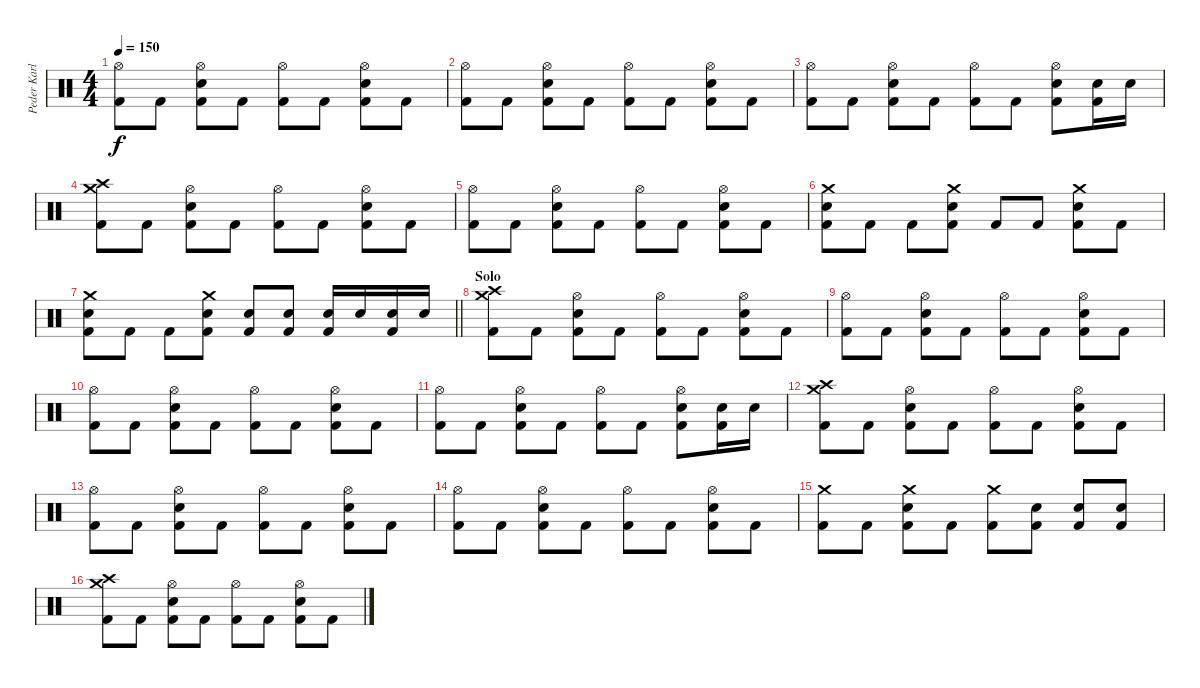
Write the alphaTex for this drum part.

\track ("Peder Karlsson" "Peder Karl") {instrument percussion}
\staff {score}
\articulation defaults
\ts (4 4)
\tempo 150
\clef neutral
\ks c
("Hi-Hat (open)" "Kick (hit) 2").8{dy f} "Kick (hit) 2".8 ("Hi-Hat (open)" "Snare (hit) 2" "Kick (hit) 2").8 "Kick (hit) 2".8 ("Hi-Hat (open)" "Kick (hit) 2").8 "Kick (hit) 2".8 ("Hi-Hat (open)" "Snare (hit) 2" "Kick (hit) 2").8 "Kick (hit) 2".8 |
("Hi-Hat (open)" "Kick (hit) 2").8 "Kick (hit) 2".8 ("Hi-Hat (open)" "Snare (hit) 2" "Kick (hit) 2").8 "Kick (hit) 2".8 ("Hi-Hat (open)" "Kick (hit) 2").8 "Kick (hit) 2".8 ("Hi-Hat (open)" "Snare (hit) 2" "Kick (hit) 2").8 "Kick (hit) 2".8 |
("Hi-Hat (open)" "Kick (hit) 2").8 "Kick (hit) 2".8 ("Hi-Hat (open)" "Snare (hit) 2" "Kick (hit) 2").8 "Kick (hit) 2".8 ("Hi-Hat (open)" "Kick (hit) 2").8 "Kick (hit) 2".8 ("Hi-Hat (open)" "Snare (hit) 2" "Kick (hit) 2").8 ("Snare (hit) 2" "Kick (hit) 2").16 "Snare (hit) 2".16 |
("Crash medium (hit)" "Crash high (hit)" "Kick (hit) 2").8 "Kick (hit) 2".8 ("Hi-Hat (open)" "Snare (hit) 2" "Kick (hit) 2").8 "Kick (hit) 2".8 ("Hi-Hat (open)" "Kick (hit) 2").8 "Kick (hit) 2".8 ("Hi-Hat (open)" "Snare (hit) 2" "Kick (hit) 2").8 "Kick (hit) 2".8 |
("Hi-Hat (open)" "Kick (hit) 2").8 "Kick (hit) 2".8 ("Hi-Hat (open)" "Snare (hit) 2" "Kick (hit) 2").8 "Kick (hit) 2".8 ("Hi-Hat (open)" "Kick (hit) 2").8 "Kick (hit) 2".8 ("Hi-Hat (open)" "Snare (hit) 2" "Kick (hit) 2").8 "Kick (hit) 2".8 |
("Crash medium (hit)" "Snare (hit) 2" "Kick (hit) 2").8 "Kick (hit) 2".8 "Kick (hit) 2".8 ("Crash medium (hit)" "Snare (hit) 2" "Kick (hit) 2").8 "Kick (hit) 2".8 "Kick (hit) 2".8 ("Crash medium (hit)" "Snare (hit) 2" "Kick (hit) 2").8 "Kick (hit) 2".8 |
\barLineRight lightlight
("Crash medium (hit)" "Snare (hit) 2" "Kick (hit) 2").8 "Kick (hit) 2".8 "Kick (hit) 2".8 ("Crash medium (hit)" "Snare (hit) 2" "Kick (hit) 2").8 ("Snare (hit) 2" "Kick (hit) 2").8 ("Snare (hit) 2" "Kick (hit) 2").8 ("Snare (hit) 2" "Kick (hit) 2").16 "Snare (hit) 2".16 ("Snare (hit) 2" "Kick (hit) 2").16 "Snare (hit) 2".16 |
\section ("" "Solo")
("Crash medium (hit)" "Crash high (hit)" "Kick (hit) 2").8 "Kick (hit) 2".8 ("Hi-Hat (open)" "Snare (hit) 2" "Kick (hit) 2").8 "Kick (hit) 2".8 ("Hi-Hat (open)" "Kick (hit) 2").8 "Kick (hit) 2".8 ("Hi-Hat (open)" "Snare (hit) 2" "Kick (hit) 2").8 "Kick (hit) 2".8 |
("Hi-Hat (open)" "Kick (hit) 2").8 "Kick (hit) 2".8 ("Hi-Hat (open)" "Snare (hit) 2" "Kick (hit) 2").8 "Kick (hit) 2".8 ("Hi-Hat (open)" "Kick (hit) 2").8 "Kick (hit) 2".8 ("Hi-Hat (open)" "Snare (hit) 2" "Kick (hit) 2").8 "Kick (hit) 2".8 |
("Hi-Hat (open)" "Kick (hit) 2").8 "Kick (hit) 2".8 ("Hi-Hat (open)" "Snare (hit) 2" "Kick (hit) 2").8 "Kick (hit) 2".8 ("Hi-Hat (open)" "Kick (hit) 2").8 "Kick (hit) 2".8 ("Hi-Hat (open)" "Snare (hit) 2" "Kick (hit) 2").8 "Kick (hit) 2".8 |
("Hi-Hat (open)" "Kick (hit) 2").8 "Kick (hit) 2".8 ("Hi-Hat (open)" "Snare (hit) 2" "Kick (hit) 2").8 "Kick (hit) 2".8 ("Hi-Hat (open)" "Kick (hit) 2").8 "Kick (hit) 2".8 ("Hi-Hat (open)" "Snare (hit) 2" "Kick (hit) 2").8 ("Snare (hit) 2" "Kick (hit) 2").16 "Snare (hit) 2".16 |
("Crash medium (hit)" "Crash high (hit)" "Kick (hit) 2").8 "Kick (hit) 2".8 ("Hi-Hat (open)" "Snare (hit) 2" "Kick (hit) 2").8 "Kick (hit) 2".8 ("Hi-Hat (open)" "Kick (hit) 2").8 "Kick (hit) 2".8 ("Hi-Hat (open)" "Snare (hit) 2" "Kick (hit) 2").8 "Kick (hit) 2".8 |
("Hi-Hat (open)" "Kick (hit) 2").8 "Kick (hit) 2".8 ("Hi-Hat (open)" "Snare (hit) 2" "Kick (hit) 2").8 "Kick (hit) 2".8 ("Hi-Hat (open)" "Kick (hit) 2").8 "Kick (hit) 2".8 ("Hi-Hat (open)" "Snare (hit) 2" "Kick (hit) 2").8 "Kick (hit) 2".8 |
("Hi-Hat (open)" "Kick (hit) 2").8 "Kick (hit) 2".8 ("Hi-Hat (open)" "Snare (hit) 2" "Kick (hit) 2").8 "Kick (hit) 2".8 ("Hi-Hat (open)" "Kick (hit) 2").8 "Kick (hit) 2".8 ("Hi-Hat (open)" "Snare (hit) 2" "Kick (hit) 2").8 "Kick (hit) 2".8 |
("Crash medium (hit)" "Kick (hit) 2").8 "Kick (hit) 2".8 ("Crash medium (hit)" "Snare (hit) 2" "Kick (hit) 2").8 "Kick (hit) 2".8 ("Crash medium (hit)" "Kick (hit) 2").8 ("Snare (hit) 2" "Kick (hit) 2").8 ("Snare (hit) 2" "Kick (hit) 2").8 ("Snare (hit) 2" "Kick (hit) 2").8 |
("Crash medium (hit)" "Crash high (hit)" "Kick (hit) 2").8 "Kick (hit) 2".8 ("Hi-Hat (open)" "Snare (hit) 2" "Kick (hit) 2").8 "Kick (hit) 2".8 ("Hi-Hat (open)" "Kick (hit) 2").8 "Kick (hit) 2".8 ("Hi-Hat (open)" "Snare (hit) 2" "Kick (hit) 2").8 "Kick (hit) 2".8
